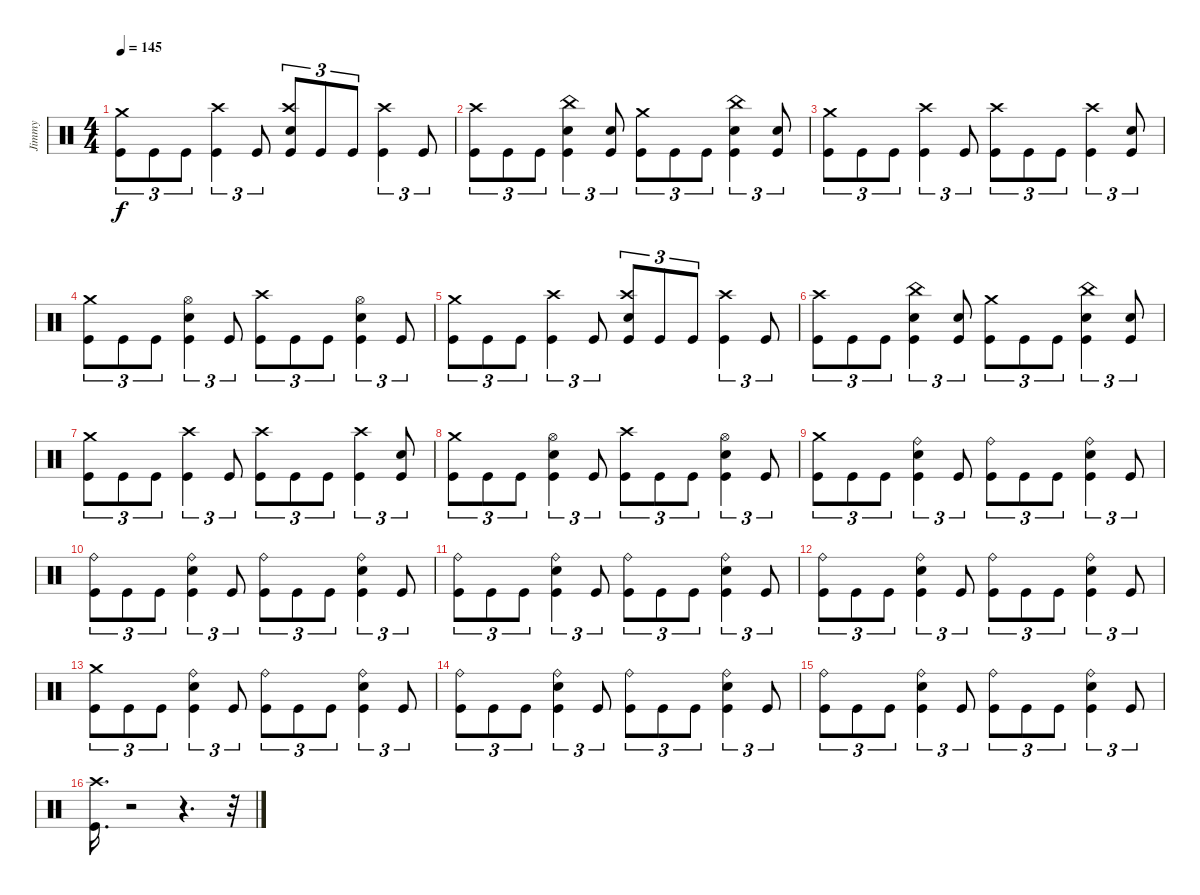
\track ("Jimmy" "Jimmy") {instrument percussion}
\staff {score}
\articulation defaults
\ts (4 4)
\tempo 145
\clef neutral
\ks c
("Crash medium (hit)" "Kick (hit)").8{tu (3 2) dy f} "Kick (hit)".8{tu (3 2)} "Kick (hit)".8{tu (3 2)} ("Kick (hit)" "Crash high (hit)").4{tu (3 2)} "Kick (hit)".8{tu (3 2)} ("Snare (hit) 2" "Kick (hit)" "Crash high (hit)").8{tu (3 2)} "Kick (hit)".8{tu (3 2)} "Kick (hit)".8{tu (3 2)} ("Kick (hit)" "Crash high (hit)").4{tu (3 2)} "Kick (hit)".8{tu (3 2)} |
("Kick (hit)" "Crash high (hit)").8{tu (3 2)} "Kick (hit)".8{tu (3 2)} "Kick (hit)".8{tu (3 2)} ("Snare (hit) 2" "China (hit)" "Kick (hit)").4{tu (3 2)} ("Snare (hit) 2" "Kick (hit)").8{tu (3 2)} ("Kick (hit)" "Crash medium (hit)").8{tu (3 2)} "Kick (hit)".8{tu (3 2)} "Kick (hit)".8{tu (3 2)} ("Snare (hit) 2" "China (hit)" "Kick (hit)").4{tu (3 2)} ("Snare (hit) 2" "Kick (hit)").8{tu (3 2)} |
("Crash medium (hit)" "Kick (hit)").8{tu (3 2)} "Kick (hit)".8{tu (3 2)} "Kick (hit)".8{tu (3 2)} ("Kick (hit)" "Crash high (hit)").4{tu (3 2)} "Kick (hit)".8{tu (3 2)} ("Kick (hit)" "Crash high (hit)").8{tu (3 2)} "Kick (hit)".8{tu (3 2)} "Kick (hit)".8{tu (3 2)} ("Kick (hit)" "Crash high (hit)").4{tu (3 2)} ("Kick (hit)" "Snare (hit) 2").8{tu (3 2)} |
("Crash medium (hit)" "Kick (hit)").8{tu (3 2)} "Kick (hit)".8{tu (3 2)} "Kick (hit)".8{tu (3 2)} ("Kick (hit)" "Hi-Hat (open)" "Snare (hit) 2").4{tu (3 2)} "Kick (hit)".8{tu (3 2)} ("Crash high (hit)" "Kick (hit)").8{tu (3 2)} "Kick (hit)".8{tu (3 2)} "Kick (hit)".8{tu (3 2)} ("Kick (hit)" "Hi-Hat (open)" "Snare (hit) 2").4{tu (3 2)} "Kick (hit)".8{tu (3 2)} |
("Crash medium (hit)" "Kick (hit)").8{tu (3 2)} "Kick (hit)".8{tu (3 2)} "Kick (hit)".8{tu (3 2)} ("Kick (hit)" "Crash high (hit)").4{tu (3 2)} "Kick (hit)".8{tu (3 2)} ("Snare (hit) 2" "Kick (hit)" "Crash high (hit)").8{tu (3 2)} "Kick (hit)".8{tu (3 2)} "Kick (hit)".8{tu (3 2)} ("Kick (hit)" "Crash high (hit)").4{tu (3 2)} "Kick (hit)".8{tu (3 2)} |
("Kick (hit)" "Crash high (hit)").8{tu (3 2)} "Kick (hit)".8{tu (3 2)} "Kick (hit)".8{tu (3 2)} ("Snare (hit) 2" "China (hit)" "Kick (hit)").4{tu (3 2)} ("Snare (hit) 2" "Kick (hit)").8{tu (3 2)} ("Kick (hit)" "Crash medium (hit)").8{tu (3 2)} "Kick (hit)".8{tu (3 2)} "Kick (hit)".8{tu (3 2)} ("Snare (hit) 2" "China (hit)" "Kick (hit)").4{tu (3 2)} ("Snare (hit) 2" "Kick (hit)").8{tu (3 2)} |
("Crash medium (hit)" "Kick (hit)").8{tu (3 2)} "Kick (hit)".8{tu (3 2)} "Kick (hit)".8{tu (3 2)} ("Kick (hit)" "Crash high (hit)").4{tu (3 2)} "Kick (hit)".8{tu (3 2)} ("Kick (hit)" "Crash high (hit)").8{tu (3 2)} "Kick (hit)".8{tu (3 2)} "Kick (hit)".8{tu (3 2)} ("Kick (hit)" "Crash high (hit)").4{tu (3 2)} ("Kick (hit)" "Snare (hit) 2").8{tu (3 2)} |
("Crash medium (hit)" "Kick (hit)").8{tu (3 2)} "Kick (hit)".8{tu (3 2)} "Kick (hit)".8{tu (3 2)} ("Kick (hit)" "Hi-Hat (open)" "Snare (hit) 2").4{tu (3 2)} "Kick (hit)".8{tu (3 2)} ("Crash high (hit)" "Kick (hit)").8{tu (3 2)} "Kick (hit)".8{tu (3 2)} "Kick (hit)".8{tu (3 2)} ("Kick (hit)" "Hi-Hat (open)" "Snare (hit) 2").4{tu (3 2)} "Kick (hit)".8{tu (3 2)} |
("Crash medium (hit)" "Kick (hit)").8{tu (3 2)} "Kick (hit)".8{tu (3 2)} "Kick (hit)".8{tu (3 2)} ("Kick (hit)" "Ride (bell)" "Snare (hit) 2").4{tu (3 2)} "Kick (hit)".8{tu (3 2)} ("Ride (bell)" "Kick (hit)").8{tu (3 2)} "Kick (hit)".8{tu (3 2)} "Kick (hit)".8{tu (3 2)} ("Kick (hit)" "Ride (bell)" "Snare (hit) 2").4{tu (3 2)} "Kick (hit)".8{tu (3 2)} |
("Ride (bell)" "Kick (hit)").8{tu (3 2)} "Kick (hit)".8{tu (3 2)} "Kick (hit)".8{tu (3 2)} ("Kick (hit)" "Ride (bell)" "Snare (hit) 2").4{tu (3 2)} "Kick (hit)".8{tu (3 2)} ("Ride (bell)" "Kick (hit)").8{tu (3 2)} "Kick (hit)".8{tu (3 2)} "Kick (hit)".8{tu (3 2)} ("Kick (hit)" "Ride (bell)" "Snare (hit) 2").4{tu (3 2)} "Kick (hit)".8{tu (3 2)} |
("Ride (bell)" "Kick (hit)").8{tu (3 2)} "Kick (hit)".8{tu (3 2)} "Kick (hit)".8{tu (3 2)} ("Kick (hit)" "Ride (bell)" "Snare (hit) 2").4{tu (3 2)} "Kick (hit)".8{tu (3 2)} ("Ride (bell)" "Kick (hit)").8{tu (3 2)} "Kick (hit)".8{tu (3 2)} "Kick (hit)".8{tu (3 2)} ("Kick (hit)" "Ride (bell)" "Snare (hit) 2").4{tu (3 2)} "Kick (hit)".8{tu (3 2)} |
("Ride (bell)" "Kick (hit)").8{tu (3 2)} "Kick (hit)".8{tu (3 2)} "Kick (hit)".8{tu (3 2)} ("Kick (hit)" "Ride (bell)" "Snare (hit) 2").4{tu (3 2)} "Kick (hit)".8{tu (3 2)} ("Ride (bell)" "Kick (hit)").8{tu (3 2)} "Kick (hit)".8{tu (3 2)} "Kick (hit)".8{tu (3 2)} ("Kick (hit)" "Ride (bell)" "Snare (hit) 2").4{tu (3 2)} "Kick (hit)".8{tu (3 2)} |
("Crash medium (hit)" "Kick (hit)").8{tu (3 2)} "Kick (hit)".8{tu (3 2)} "Kick (hit)".8{tu (3 2)} ("Kick (hit)" "Ride (bell)" "Snare (hit) 2").4{tu (3 2)} "Kick (hit)".8{tu (3 2)} ("Ride (bell)" "Kick (hit)").8{tu (3 2)} "Kick (hit)".8{tu (3 2)} "Kick (hit)".8{tu (3 2)} ("Kick (hit)" "Ride (bell)" "Snare (hit) 2").4{tu (3 2)} "Kick (hit)".8{tu (3 2)} |
("Ride (bell)" "Kick (hit)").8{tu (3 2)} "Kick (hit)".8{tu (3 2)} "Kick (hit)".8{tu (3 2)} ("Kick (hit)" "Ride (bell)" "Snare (hit) 2").4{tu (3 2)} "Kick (hit)".8{tu (3 2)} ("Ride (bell)" "Kick (hit)").8{tu (3 2)} "Kick (hit)".8{tu (3 2)} "Kick (hit)".8{tu (3 2)} ("Kick (hit)" "Ride (bell)" "Snare (hit) 2").4{tu (3 2)} "Kick (hit)".8{tu (3 2)} |
("Ride (bell)" "Kick (hit)").8{tu (3 2)} "Kick (hit)".8{tu (3 2)} "Kick (hit)".8{tu (3 2)} ("Kick (hit)" "Ride (bell)" "Snare (hit) 2").4{tu (3 2)} "Kick (hit)".8{tu (3 2)} ("Ride (bell)" "Kick (hit)").8{tu (3 2)} "Kick (hit)".8{tu (3 2)} "Kick (hit)".8{tu (3 2)} ("Kick (hit)" "Ride (bell)" "Snare (hit) 2").4{tu (3 2)} "Kick (hit)".8{tu (3 2)} |
("Kick (hit)" "Crash high (hit)").16{d} r.2{volume 0} r.4{d} r.32
